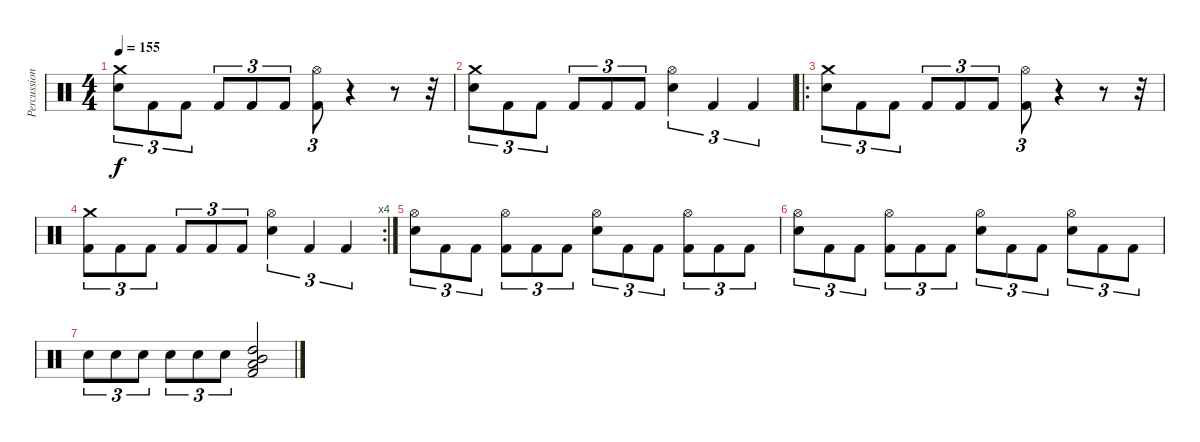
\track ("Percussion" "Percussion") {instrument percussion}
\staff {score}
\articulation defaults
\ts (4 4)
\tempo 155
\clef neutral
\ks c
("Crash medium (hit)" "Snare (hit) 2").8{tu (3 2) dy f} "Kick (hit) 2".8{tu (3 2)} "Kick (hit) 2".8{tu (3 2)} "Kick (hit) 2".8{tu (3 2)} "Kick (hit) 2".8{tu (3 2)} "Kick (hit) 2".8{tu (3 2)} ("Hi-Hat (open)" "Kick (hit) 2").8{tu (3 2)} r.4 r.8 r.32 |
("Crash medium (hit)" "Snare (hit) 2").8{tu (3 2)} "Kick (hit) 2".8{tu (3 2)} "Kick (hit) 2".8{tu (3 2)} "Kick (hit) 2".8{tu (3 2)} "Kick (hit) 2".8{tu (3 2)} "Kick (hit) 2".8{tu (3 2)} ("Hi-Hat (open)" "Snare (hit) 2").4{tu (3 2)} "Kick (hit) 2".4{tu (3 2)} "Kick (hit) 2".4{tu (3 2)} |
\ro
("Crash medium (hit)" "Snare (hit) 2").8{tu (3 2)} "Kick (hit) 2".8{tu (3 2)} "Kick (hit) 2".8{tu (3 2)} "Kick (hit) 2".8{tu (3 2)} "Kick (hit) 2".8{tu (3 2)} "Kick (hit) 2".8{tu (3 2)} ("Hi-Hat (open)" "Kick (hit) 2").8{tu (3 2)} r.4 r.8 r.32 |
\rc 4
("Crash medium (hit)" "Kick (hit) 2").8{tu (3 2)} "Kick (hit) 2".8{tu (3 2)} "Kick (hit) 2".8{tu (3 2)} "Kick (hit) 2".8{tu (3 2)} "Kick (hit) 2".8{tu (3 2)} "Kick (hit) 2".8{tu (3 2)} ("Hi-Hat (open)" "Snare (hit) 2").4{tu (3 2)} "Kick (hit) 2".4{tu (3 2)} "Kick (hit) 2".4{tu (3 2)} |
("Hi-Hat (open)" "Snare (hit) 2").8{tu (3 2)} "Kick (hit) 2".8{tu (3 2)} "Kick (hit) 2".8{tu (3 2)} ("Hi-Hat (open)" "Kick (hit) 2").8{tu (3 2)} "Kick (hit) 2".8{tu (3 2)} "Kick (hit) 2".8{tu (3 2)} ("Hi-Hat (open)" "Snare (hit) 2").8{tu (3 2)} "Kick (hit) 2".8{tu (3 2)} "Kick (hit) 2".8{tu (3 2)} ("Hi-Hat (open)" "Kick (hit) 2").8{tu (3 2)} "Kick (hit) 2".8{tu (3 2)} "Kick (hit) 2".8{tu (3 2)} |
("Hi-Hat (open)" "Snare (hit) 2").8{tu (3 2)} "Kick (hit) 2".8{tu (3 2)} "Kick (hit) 2".8{tu (3 2)} ("Hi-Hat (open)" "Kick (hit) 2").8{tu (3 2)} "Kick (hit) 2".8{tu (3 2)} "Kick (hit) 2".8{tu (3 2)} ("Hi-Hat (open)" "Snare (hit) 2").8{tu (3 2)} "Kick (hit) 2".8{tu (3 2)} "Kick (hit) 2".8{tu (3 2)} ("Hi-Hat (open)" "Snare (hit) 2").8{tu (3 2)} "Kick (hit) 2".8{tu (3 2)} "Kick (hit) 2".8{tu (3 2)} |
"Snare (hit) 2".8{tu (3 2)} "Snare (hit) 2".8{tu (3 2)} "Snare (hit) 2".8{tu (3 2)} "Snare (hit) 2".8{tu (3 2)} "Snare (hit) 2".8{tu (3 2)} "Snare (hit) 2".8{tu (3 2)} ("Low Tom (hit)" "Mid Tom (hit)" "High Tom (hit)" "Kick (hit) 2").2
